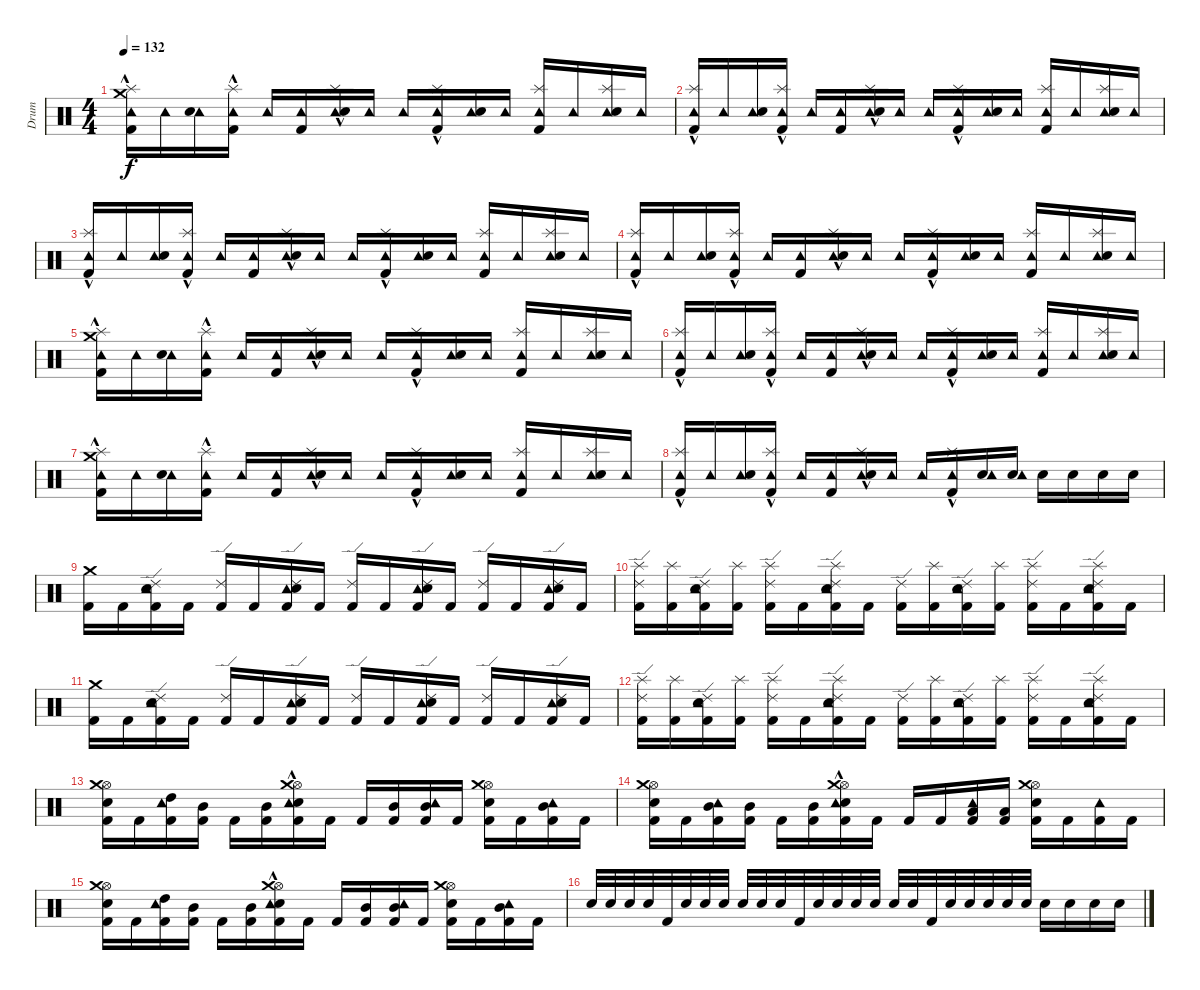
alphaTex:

\track (" Drum" " Drum") {instrument percussion}
\staff {score}
\articulation defaults
\ts (4 4)
\tempo 132
\clef neutral
\ks c
("Crash medium (hit)" "Tambourine (hit)" "Splash (hit)"{hac} "Kick (hit) 2").16{dy f} "Tambourine (hit)".16 ("Tambourine (hit)" "Electric Snare (hit)").16 ("Tambourine (hit)" "Splash (hit)"{hac} "Kick (hit) 2").16 "Tambourine (hit)".16 ("Tambourine (hit)" "Kick (hit) 2").16 ("Tambourine (hit)" "Splash (hit)"{hac} "Electric Snare (hit)").16 "Tambourine (hit)".16 "Tambourine (hit)".16 ("Tambourine (hit)" "Splash (hit)"{hac} "Kick (hit) 2").16 ("Tambourine (hit)" "Electric Snare (hit)").16 "Tambourine (hit)".16 ("Tambourine (hit)" "Splash (hit)" "Kick (hit) 2").16 "Tambourine (hit)".16 ("Tambourine (hit)" "Splash (hit)" "Electric Snare (hit)").16 "Tambourine (hit)".16 |
("Tambourine (hit)" "Splash (hit)"{hac} "Kick (hit) 2").16 "Tambourine (hit)".16 ("Tambourine (hit)" "Electric Snare (hit)").16 ("Tambourine (hit)" "Splash (hit)"{hac} "Kick (hit) 2").16 "Tambourine (hit)".16 ("Tambourine (hit)" "Kick (hit) 2").16 ("Tambourine (hit)" "Splash (hit)"{hac} "Electric Snare (hit)").16 "Tambourine (hit)".16 "Tambourine (hit)".16 ("Tambourine (hit)" "Splash (hit)"{hac} "Kick (hit) 2").16 ("Tambourine (hit)" "Electric Snare (hit)").16 "Tambourine (hit)".16 ("Tambourine (hit)" "Splash (hit)" "Kick (hit) 2").16 "Tambourine (hit)".16 ("Tambourine (hit)" "Splash (hit)" "Electric Snare (hit)").16 "Tambourine (hit)".16 |
("Tambourine (hit)" "Splash (hit)"{hac} "Kick (hit) 2").16 "Tambourine (hit)".16 ("Tambourine (hit)" "Electric Snare (hit)").16 ("Tambourine (hit)" "Splash (hit)"{hac} "Kick (hit) 2").16 "Tambourine (hit)".16 ("Tambourine (hit)" "Kick (hit) 2").16 ("Tambourine (hit)" "Splash (hit)"{hac} "Electric Snare (hit)").16 "Tambourine (hit)".16 "Tambourine (hit)".16 ("Tambourine (hit)" "Splash (hit)"{hac} "Kick (hit) 2").16 ("Tambourine (hit)" "Electric Snare (hit)").16 "Tambourine (hit)".16 ("Tambourine (hit)" "Splash (hit)" "Kick (hit) 2").16 "Tambourine (hit)".16 ("Tambourine (hit)" "Splash (hit)" "Electric Snare (hit)").16 "Tambourine (hit)".16 |
("Tambourine (hit)" "Splash (hit)"{hac} "Kick (hit) 2").16 "Tambourine (hit)".16 ("Tambourine (hit)" "Electric Snare (hit)").16 ("Tambourine (hit)" "Splash (hit)"{hac} "Kick (hit) 2").16 "Tambourine (hit)".16 ("Tambourine (hit)" "Kick (hit) 2").16 ("Tambourine (hit)" "Splash (hit)"{hac} "Electric Snare (hit)").16 "Tambourine (hit)".16 "Tambourine (hit)".16 ("Tambourine (hit)" "Splash (hit)"{hac} "Kick (hit) 2").16 ("Tambourine (hit)" "Electric Snare (hit)").16 "Tambourine (hit)".16 ("Tambourine (hit)" "Splash (hit)" "Kick (hit) 2").16 "Tambourine (hit)".16 ("Tambourine (hit)" "Splash (hit)" "Electric Snare (hit)").16 "Tambourine (hit)".16 |
("Crash medium (hit)" "Tambourine (hit)" "Splash (hit)"{hac} "Kick (hit) 2").16 "Tambourine (hit)".16 ("Tambourine (hit)" "Electric Snare (hit)").16 ("Tambourine (hit)" "Splash (hit)"{hac} "Kick (hit) 2").16 "Tambourine (hit)".16 ("Tambourine (hit)" "Kick (hit) 2").16 ("Tambourine (hit)" "Splash (hit)"{hac} "Electric Snare (hit)").16 "Tambourine (hit)".16 "Tambourine (hit)".16 ("Tambourine (hit)" "Splash (hit)"{hac} "Kick (hit) 2").16 ("Tambourine (hit)" "Electric Snare (hit)").16 "Tambourine (hit)".16 ("Tambourine (hit)" "Splash (hit)" "Kick (hit) 2").16 "Tambourine (hit)".16 ("Tambourine (hit)" "Splash (hit)" "Electric Snare (hit)").16 "Tambourine (hit)".16 |
("Tambourine (hit)" "Splash (hit)"{hac} "Kick (hit) 2").16 "Tambourine (hit)".16 ("Tambourine (hit)" "Electric Snare (hit)").16 ("Tambourine (hit)" "Splash (hit)"{hac} "Kick (hit) 2").16 "Tambourine (hit)".16 ("Tambourine (hit)" "Kick (hit) 2").16 ("Tambourine (hit)" "Splash (hit)"{hac} "Electric Snare (hit)").16 "Tambourine (hit)".16 "Tambourine (hit)".16 ("Tambourine (hit)" "Splash (hit)"{hac} "Kick (hit) 2").16 ("Tambourine (hit)" "Electric Snare (hit)").16 "Tambourine (hit)".16 ("Tambourine (hit)" "Splash (hit)" "Kick (hit) 2").16 "Tambourine (hit)".16 ("Tambourine (hit)" "Splash (hit)" "Electric Snare (hit)").16 "Tambourine (hit)".16 |
("Crash medium (hit)" "Tambourine (hit)" "Splash (hit)"{hac} "Kick (hit) 2").16 "Tambourine (hit)".16 ("Tambourine (hit)" "Electric Snare (hit)").16 ("Tambourine (hit)" "Splash (hit)"{hac} "Kick (hit) 2").16 "Tambourine (hit)".16 ("Tambourine (hit)" "Kick (hit) 2").16 ("Tambourine (hit)" "Splash (hit)"{hac} "Electric Snare (hit)").16 "Tambourine (hit)".16 "Tambourine (hit)".16 ("Tambourine (hit)" "Splash (hit)"{hac} "Kick (hit) 2").16 ("Tambourine (hit)" "Electric Snare (hit)").16 "Tambourine (hit)".16 ("Tambourine (hit)" "Splash (hit)" "Kick (hit) 2").16 "Tambourine (hit)".16 ("Tambourine (hit)" "Splash (hit)" "Electric Snare (hit)").16 "Tambourine (hit)".16 |
("Tambourine (hit)" "Splash (hit)"{hac} "Kick (hit) 2").16 "Tambourine (hit)".16 ("Tambourine (hit)" "Electric Snare (hit)").16 ("Tambourine (hit)" "Splash (hit)"{hac} "Kick (hit) 2").16 "Tambourine (hit)".16 ("Tambourine (hit)" "Kick (hit) 2").16 ("Tambourine (hit)" "Splash (hit)"{hac} "Electric Snare (hit)").16 "Tambourine (hit)".16 "Tambourine (hit)".16 ("Tambourine (hit)" "Splash (hit)"{hac} "Kick (hit) 2").16 ("Electric Snare (hit)" "Tambourine (hit)").16 ("Electric Snare (hit)" "Tambourine (hit)").16 "Electric Snare (hit)".16 "Electric Snare (hit)".16 "Electric Snare (hit)".16 "Electric Snare (hit)".16 |
("Crash medium (hit)" "Kick (hit) 2").16 "Kick (hit) 2".16 ("Ride (edge) 2" "Tambourine (hit)" "Electric Snare (hit)" "Kick (hit) 2").16 "Kick (hit) 2".16 ("Ride (edge) 2" "Kick (hit) 2").16 "Kick (hit) 2".16 ("Ride (edge) 2" "Tambourine (hit)" "Electric Snare (hit)" "Kick (hit) 2").16 "Kick (hit) 2".16 ("Ride (edge) 2" "Kick (hit) 2").16 "Kick (hit) 2".16 ("Ride (edge) 2" "Tambourine (hit)" "Electric Snare (hit)" "Kick (hit) 2").16 "Kick (hit) 2".16 ("Ride (edge) 2" "Kick (hit) 2").16 "Kick (hit) 2".16 ("Ride (edge) 2" "Tambourine (hit)" "Electric Snare (hit)" "Kick (hit) 2").16 "Kick (hit) 2".16 |
("Ride (edge) 2" "Splash (hit)" "Kick (hit) 2").16 ("Splash (hit)" "Kick (hit) 2").16 ("Ride (edge) 2" "Tambourine (hit)" "Electric Snare (hit)" "Kick (hit) 2").16 ("Splash (hit)" "Kick (hit) 2").16 ("Ride (edge) 2" "Splash (hit)" "Kick (hit) 2").16 "Kick (hit) 2".16 ("Ride (edge) 2" "Splash (hit)" "Tambourine (hit)" "Electric Snare (hit)" "Kick (hit) 2").16 "Kick (hit) 2".16 ("Ride (edge) 2" "Kick (hit) 2").16 ("Splash (hit)" "Kick (hit) 2").16 ("Ride (edge) 2" "Tambourine (hit)" "Electric Snare (hit)" "Kick (hit) 2").16 ("Splash (hit)" "Kick (hit) 2").16 ("Ride (edge) 2" "Splash (hit)" "Kick (hit) 2").16 "Kick (hit) 2".16 ("Ride (edge) 2" "Splash (hit)" "Tambourine (hit)" "Electric Snare (hit)" "Kick (hit) 2").16 "Kick (hit) 2".16 |
("Crash medium (hit)" "Kick (hit) 2").16 "Kick (hit) 2".16 ("Ride (edge) 2" "Tambourine (hit)" "Electric Snare (hit)" "Kick (hit) 2").16 "Kick (hit) 2".16 ("Ride (edge) 2" "Kick (hit) 2").16 "Kick (hit) 2".16 ("Ride (edge) 2" "Tambourine (hit)" "Electric Snare (hit)" "Kick (hit) 2").16 "Kick (hit) 2".16 ("Ride (edge) 2" "Kick (hit) 2").16 "Kick (hit) 2".16 ("Ride (edge) 2" "Tambourine (hit)" "Electric Snare (hit)" "Kick (hit) 2").16 "Kick (hit) 2".16 ("Ride (edge) 2" "Kick (hit) 2").16 "Kick (hit) 2".16 ("Ride (edge) 2" "Tambourine (hit)" "Electric Snare (hit)" "Kick (hit) 2").16 "Kick (hit) 2".16 |
("Ride (edge) 2" "Splash (hit)" "Kick (hit) 2").16 ("Splash (hit)" "Kick (hit) 2").16 ("Ride (edge) 2" "Tambourine (hit)" "Electric Snare (hit)" "Kick (hit) 2").16 ("Splash (hit)" "Kick (hit) 2").16 ("Ride (edge) 2" "Splash (hit)" "Kick (hit) 2").16 "Kick (hit) 2".16 ("Ride (edge) 2" "Splash (hit)" "Tambourine (hit)" "Electric Snare (hit)" "Kick (hit) 2").16 "Kick (hit) 2".16 ("Ride (edge) 2" "Kick (hit) 2").16 ("Splash (hit)" "Kick (hit) 2").16 ("Ride (edge) 2" "Tambourine (hit)" "Electric Snare (hit)" "Kick (hit) 2").16 ("Splash (hit)" "Kick (hit) 2").16 ("Ride (edge) 2" "Splash (hit)" "Kick (hit) 2").16 "Kick (hit) 2".16 ("Ride (edge) 2" "Splash (hit)" "Tambourine (hit)" "Electric Snare (hit)" "Kick (hit) 2").16 "Kick (hit) 2".16 |
("Hi-Hat (open)" "Crash medium (hit)" "Electric Snare (hit)" "Kick (hit) 2").16 "Kick (hit) 2".16 ("High Tom (hit)" "Tambourine (hit)" "Kick (hit) 2").16 ("Mid Tom (hit)" "Kick (hit) 2").16 "Kick (hit) 2".16 ("Mid Tom (hit)" "Kick (hit) 2").16 ("Hi-Hat (open)"{hac} "Crash medium (hit)"{hac} "Electric Snare (hit)" "Tambourine (hit)" "Kick (hit) 2").16 "Kick (hit) 2".16 "Kick (hit) 2".16 ("Mid Tom (hit)" "Kick (hit) 2").16 ("Mid Tom (hit)" "Tambourine (hit)" "Kick (hit) 2").16 "Kick (hit) 2".16 ("Hi-Hat (open)" "Crash medium (hit)" "Electric Snare (hit)" "Kick (hit) 2").16 "Kick (hit) 2".16 ("Mid Tom (hit)" "Tambourine (hit)" "Kick (hit) 2").16 "Kick (hit) 2".16 |
("Hi-Hat (open)" "Crash medium (hit)" "Electric Snare (hit)" "Kick (hit) 2").16 "Kick (hit) 2".16 ("Mid Tom (hit)" "Tambourine (hit)" "Kick (hit) 2").16 ("Mid Tom (hit)" "Kick (hit) 2").16 "Kick (hit) 2".16 ("Mid Tom (hit)" "Kick (hit) 2").16 ("Hi-Hat (open)"{hac} "Crash medium (hit)"{hac} "Electric Snare (hit)" "Tambourine (hit)" "Kick (hit) 2").16 "Kick (hit) 2".16 "Kick (hit) 2".16 "Kick (hit) 2".16 ("Low Tom (hit)" "Tambourine (hit)" "Kick (hit) 2").16 ("Low Tom (hit)" "Kick (hit) 2").16 ("Hi-Hat (open)" "Crash medium (hit)" "Electric Snare (hit)" "Kick (hit) 2").16 "Kick (hit) 2".16 ("Tambourine (hit)" "Kick (hit) 2").16 "Kick (hit) 2".16 |
("Hi-Hat (open)" "Crash medium (hit)" "Electric Snare (hit)" "Kick (hit) 2").16 "Kick (hit) 2".16 ("High Tom (hit)" "Tambourine (hit)" "Kick (hit) 2").16 ("Mid Tom (hit)" "Kick (hit) 2").16 "Kick (hit) 2".16 ("Mid Tom (hit)" "Kick (hit) 2").16 ("Hi-Hat (open)"{hac} "Crash medium (hit)"{hac} "Electric Snare (hit)" "Tambourine (hit)" "Kick (hit) 2").16 "Kick (hit) 2".16 "Kick (hit) 2".16 ("Mid Tom (hit)" "Kick (hit) 2").16 ("Mid Tom (hit)" "Tambourine (hit)" "Kick (hit) 2").16 "Kick (hit) 2".16 ("Hi-Hat (open)" "Crash medium (hit)" "Electric Snare (hit)" "Kick (hit) 2").16 "Kick (hit) 2".16 ("Mid Tom (hit)" "Tambourine (hit)" "Kick (hit) 2").16 "Kick (hit) 2".16 |
"Electric Snare (hit)".32 "Electric Snare (hit)".32 "Electric Snare (hit)".32 "Electric Snare (hit)".32 "Kick (hit) 2".32 "Electric Snare (hit)".32 "Electric Snare (hit)".32 "Electric Snare (hit)".32 "Electric Snare (hit)".32 "Electric Snare (hit)".32 "Electric Snare (hit)".32 "Kick (hit) 2".32 "Electric Snare (hit)".32 "Electric Snare (hit)".32 "Electric Snare (hit)".32 "Electric Snare (hit)".32 "Electric Snare (hit)".32 "Electric Snare (hit)".32 "Kick (hit) 2".32 "Electric Snare (hit)".32 "Electric Snare (hit)".32 "Electric Snare (hit)".32 "Electric Snare (hit)".32 "Electric Snare (hit)".32 "Electric Snare (hit)".16 "Electric Snare (hit)".16 "Electric Snare (hit)".16 "Electric Snare (hit)".16
